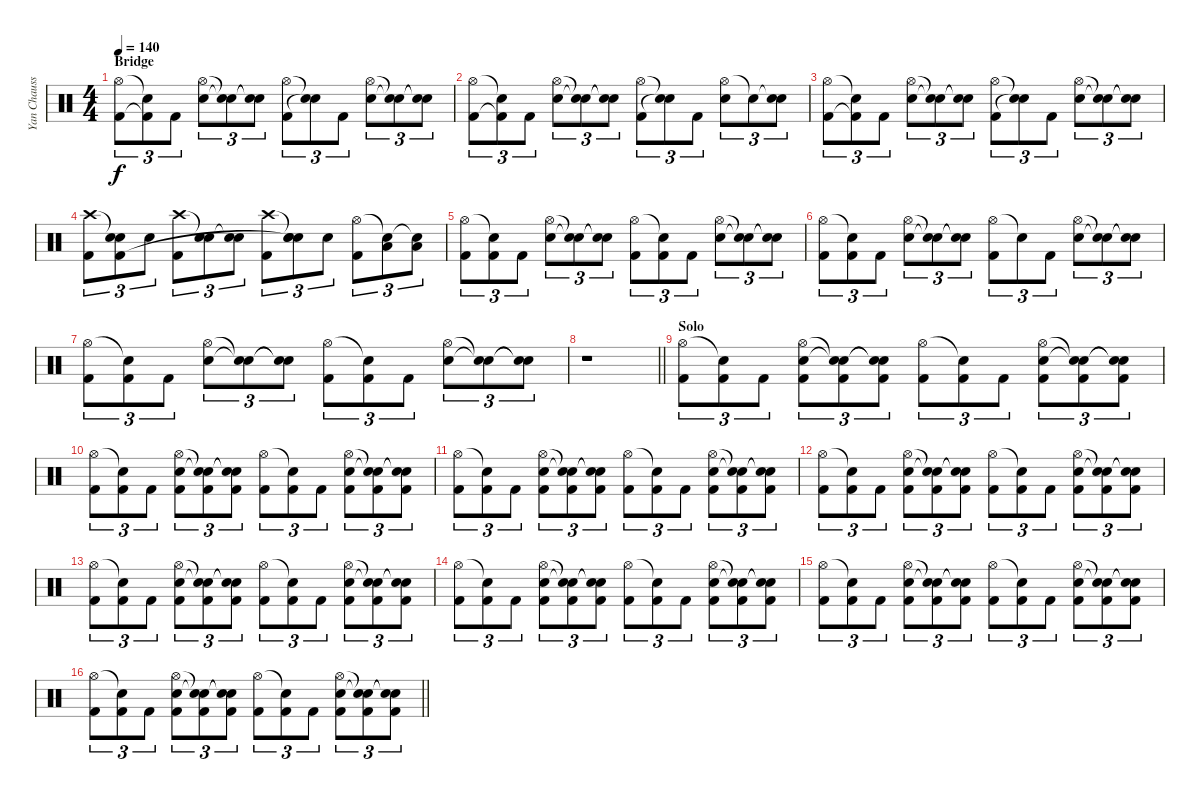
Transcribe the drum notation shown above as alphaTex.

\track ("Yan Chausse" "Yan Chauss") {instrument percussion}
\staff {score}
\articulation defaults
\ts (4 4)
\section ("" "Bridge")
\tempo 140
\clef neutral
\ks c
("Hi-Hat (open)" "Kick (hit) 2").8{tu (3 2) dy f} ("Snare (hit)"{t} "Kick (hit) 2"{t}).8{tu (3 2)} "Kick (hit) 2".8{tu (3 2)} ("Hi-Hat (open)" "Snare (hit) 2").8{tu (3 2)} ("Snare (hit)"{t} "Snare (hit)"{t}).8{tu (3 2)} ("Snare (hit)"{t} "Snare (hit)"{t}).8{tu (3 2)} ("Hi-Hat (open)" "Kick (hit) 2").8{tu (3 2)} ("Snare (hit)"{t} "Snare (hit)"{t}).8{tu (3 2)} "Kick (hit) 2".8{tu (3 2)} ("Hi-Hat (open)" "Snare (hit) 2").8{tu (3 2)} ("Snare (hit)"{t} "Snare (hit)"{t}).8{tu (3 2)} ("Snare (hit)"{t} "Snare (hit)"{t}).8{tu (3 2)} |
("Hi-Hat (open)" "Kick (hit) 2").8{tu (3 2)} ("Snare (hit)"{t} "Kick (hit) 2"{t}).8{tu (3 2)} "Kick (hit) 2".8{tu (3 2)} ("Hi-Hat (open)" "Snare (hit) 2").8{tu (3 2)} ("Snare (hit)"{t} "Snare (hit)"{t}).8{tu (3 2)} ("Snare (hit)"{t} "Snare (hit)"{t}).8{tu (3 2)} ("Hi-Hat (open)" "Kick (hit) 2").8{tu (3 2)} ("Snare (hit)"{t} "Snare (hit)"{t}).8{tu (3 2)} "Kick (hit) 2".8{tu (3 2)} ("Hi-Hat (open)" "Snare (hit) 2").8{tu (3 2)} "Snare (hit)"{t}.8{tu (3 2)} ("Snare (hit)"{t} "Snare (hit) 2").8{tu (3 2)} |
("Hi-Hat (open)" "Kick (hit) 2").8{tu (3 2)} ("Snare (hit)"{t} "Kick (hit) 2"{t}).8{tu (3 2)} "Kick (hit) 2".8{tu (3 2)} ("Hi-Hat (open)" "Snare (hit) 2").8{tu (3 2)} ("Snare (hit)"{t} "Snare (hit)"{t}).8{tu (3 2)} ("Snare (hit)"{t} "Snare (hit)"{t}).8{tu (3 2)} ("Hi-Hat (open)" "Kick (hit) 2").8{tu (3 2)} ("Snare (hit)"{t} "Snare (hit)"{t}).8{tu (3 2)} "Kick (hit) 2".8{tu (3 2)} ("Hi-Hat (open)" "Snare (hit) 2").8{tu (3 2)} ("Snare (hit)"{t} "Snare (hit)"{t}).8{tu (3 2)} ("Snare (hit)"{t} "Snare (hit)"{t}).8{tu (3 2)} |
("Crash high (hit)" "Kick (hit) 2").8{tu (3 2)} ("Snare (hit)"{t} "Snare (hit) 2" "Kick (hit) 2").8{tu (3 2)} "Snare (hit) 2".8{tu (3 2)} ("Crash high (hit)" "Kick (hit) 2").8{tu (3 2)} ("Snare (hit)"{t} "Snare (hit) 2").8{tu (3 2)} ("Snare (hit)"{t} "Snare (hit) 2").8{tu (3 2)} ("Crash high (hit)" "Kick (hit) 2").8{tu (3 2)} ("Snare (hit)"{t} "Snare (hit) 2" "Snare (hit)"{t}).8{tu (3 2)} "Snare (hit) 2".8{tu (3 2)} ("Hi-Hat (open)" "Kick (hit) 2").8{tu (3 2)} ("Snare (hit)"{t} "Low Tom (hit)").8{tu (3 2)} ("Snare (hit)"{t} "Low Tom (hit)").8{tu (3 2)} |
("Hi-Hat (open)" "Kick (hit) 2").8{tu (3 2)} ("Snare (hit)"{t} "Kick (hit) 2").8{tu (3 2)} "Kick (hit) 2".8{tu (3 2)} ("Hi-Hat (open)" "Snare (hit) 2").8{tu (3 2)} ("Snare (hit)"{t} "Snare (hit)"{t}).8{tu (3 2)} ("Snare (hit)"{t} "Snare (hit)"{t}).8{tu (3 2)} ("Hi-Hat (open)" "Kick (hit) 2").8{tu (3 2)} ("Snare (hit)"{t} "Kick (hit) 2").8{tu (3 2)} "Kick (hit) 2".8{tu (3 2)} ("Hi-Hat (open)" "Snare (hit) 2").8{tu (3 2)} ("Snare (hit)"{t} "Snare (hit)"{t}).8{tu (3 2)} ("Snare (hit)"{t} "Snare (hit)"{t}).8{tu (3 2)} |
("Hi-Hat (open)" "Kick (hit) 2").8{tu (3 2)} ("Snare (hit)"{t} "Kick (hit) 2").8{tu (3 2)} "Kick (hit) 2".8{tu (3 2)} ("Hi-Hat (open)" "Snare (hit) 2").8{tu (3 2)} ("Snare (hit)"{t} "Snare (hit)"{t}).8{tu (3 2)} ("Snare (hit)"{t} "Snare (hit)"{t}).8{tu (3 2)} ("Hi-Hat (open)" "Kick (hit) 2").8{tu (3 2)} "Snare (hit)"{t}.8{tu (3 2)} "Kick (hit) 2".8{tu (3 2)} ("Hi-Hat (open)" "Snare (hit) 2").8{tu (3 2)} ("Snare (hit)"{t} "Snare (hit)"{t}).8{tu (3 2)} ("Snare (hit)"{t} "Snare (hit)"{t}).8{tu (3 2)} |
("Hi-Hat (open)" "Kick (hit) 2").8{tu (3 2)} ("Snare (hit)"{t} "Kick (hit) 2").8{tu (3 2)} "Kick (hit) 2".8{tu (3 2)} ("Hi-Hat (open)" "Snare (hit) 2").8{tu (3 2)} ("Snare (hit)"{t} "Snare (hit)"{t}).8{tu (3 2)} ("Snare (hit)"{t} "Snare (hit)"{t}).8{tu (3 2)} ("Hi-Hat (open)" "Kick (hit) 2").8{tu (3 2)} ("Snare (hit)"{t} "Kick (hit) 2").8{tu (3 2)} "Kick (hit) 2".8{tu (3 2)} ("Hi-Hat (open)" "Snare (hit) 2").8{tu (3 2)} ("Snare (hit)"{t} "Snare (hit)"{t}).8{tu (3 2)} ("Snare (hit)"{t} "Snare (hit)"{t}).8{tu (3 2)} |
\barLineRight lightlight
r.1 |
\section ("" "Solo")
("Hi-Hat (open)" "Kick (hit) 2").8{tu (3 2)} ("Snare (hit)"{t} "Kick (hit) 2").8{tu (3 2)} "Kick (hit) 2".8{tu (3 2)} ("Hi-Hat (open)" "Snare (hit) 2" "Kick (hit) 2").8{tu (3 2)} ("Snare (hit)"{t} "Snare (hit)"{t} "Kick (hit) 2").8{tu (3 2)} ("Snare (hit)"{t} "Snare (hit)"{t} "Kick (hit) 2").8{tu (3 2)} ("Hi-Hat (open)" "Kick (hit) 2").8{tu (3 2)} ("Snare (hit)"{t} "Kick (hit) 2").8{tu (3 2)} "Kick (hit) 2".8{tu (3 2)} ("Hi-Hat (open)" "Snare (hit) 2" "Kick (hit) 2").8{tu (3 2)} ("Snare (hit)"{t} "Snare (hit)"{t} "Kick (hit) 2").8{tu (3 2)} ("Snare (hit)"{t} "Snare (hit)"{t} "Kick (hit) 2").8{tu (3 2)} |
("Hi-Hat (open)" "Kick (hit) 2").8{tu (3 2)} ("Snare (hit)"{t} "Kick (hit) 2").8{tu (3 2)} "Kick (hit) 2".8{tu (3 2)} ("Hi-Hat (open)" "Snare (hit) 2" "Kick (hit) 2").8{tu (3 2)} ("Snare (hit)"{t} "Snare (hit)"{t} "Kick (hit) 2").8{tu (3 2)} ("Snare (hit)"{t} "Snare (hit)"{t} "Kick (hit) 2").8{tu (3 2)} ("Hi-Hat (open)" "Kick (hit) 2").8{tu (3 2)} ("Snare (hit)"{t} "Kick (hit) 2").8{tu (3 2)} "Kick (hit) 2".8{tu (3 2)} ("Hi-Hat (open)" "Snare (hit) 2" "Kick (hit) 2").8{tu (3 2)} ("Snare (hit)"{t} "Snare (hit)"{t} "Kick (hit) 2").8{tu (3 2)} ("Snare (hit)"{t} "Snare (hit)"{t} "Kick (hit) 2").8{tu (3 2)} |
("Hi-Hat (open)" "Kick (hit) 2").8{tu (3 2)} ("Snare (hit)"{t} "Kick (hit) 2").8{tu (3 2)} "Kick (hit) 2".8{tu (3 2)} ("Hi-Hat (open)" "Snare (hit) 2" "Kick (hit) 2").8{tu (3 2)} ("Snare (hit)"{t} "Snare (hit)"{t} "Kick (hit) 2").8{tu (3 2)} ("Snare (hit)"{t} "Snare (hit)"{t} "Kick (hit) 2").8{tu (3 2)} ("Hi-Hat (open)" "Kick (hit) 2").8{tu (3 2)} ("Snare (hit)"{t} "Kick (hit) 2").8{tu (3 2)} "Kick (hit) 2".8{tu (3 2)} ("Hi-Hat (open)" "Snare (hit) 2" "Kick (hit) 2").8{tu (3 2)} ("Snare (hit)"{t} "Snare (hit)"{t} "Kick (hit) 2").8{tu (3 2)} ("Snare (hit)"{t} "Snare (hit)"{t} "Kick (hit) 2").8{tu (3 2)} |
("Hi-Hat (open)" "Kick (hit) 2").8{tu (3 2)} ("Snare (hit)"{t} "Kick (hit) 2").8{tu (3 2)} "Kick (hit) 2".8{tu (3 2)} ("Hi-Hat (open)" "Snare (hit) 2" "Kick (hit) 2").8{tu (3 2)} ("Snare (hit)"{t} "Snare (hit)"{t} "Kick (hit) 2").8{tu (3 2)} ("Snare (hit)"{t} "Snare (hit)"{t} "Kick (hit) 2").8{tu (3 2)} ("Hi-Hat (open)" "Kick (hit) 2").8{tu (3 2)} ("Snare (hit)"{t} "Kick (hit) 2").8{tu (3 2)} "Kick (hit) 2".8{tu (3 2)} ("Hi-Hat (open)" "Snare (hit) 2" "Kick (hit) 2").8{tu (3 2)} ("Snare (hit)"{t} "Snare (hit)"{t} "Kick (hit) 2").8{tu (3 2)} ("Snare (hit)"{t} "Snare (hit)"{t} "Kick (hit) 2").8{tu (3 2)} |
("Hi-Hat (open)" "Kick (hit) 2").8{tu (3 2)} ("Snare (hit)"{t} "Kick (hit) 2").8{tu (3 2)} "Kick (hit) 2".8{tu (3 2)} ("Hi-Hat (open)" "Snare (hit) 2" "Kick (hit) 2").8{tu (3 2)} ("Snare (hit)"{t} "Snare (hit)"{t} "Kick (hit) 2").8{tu (3 2)} ("Snare (hit)"{t} "Snare (hit)"{t} "Kick (hit) 2").8{tu (3 2)} ("Hi-Hat (open)" "Kick (hit) 2").8{tu (3 2)} ("Snare (hit)"{t} "Kick (hit) 2").8{tu (3 2)} "Kick (hit) 2".8{tu (3 2)} ("Hi-Hat (open)" "Snare (hit) 2" "Kick (hit) 2").8{tu (3 2)} ("Snare (hit)"{t} "Snare (hit)"{t} "Kick (hit) 2").8{tu (3 2)} ("Snare (hit)"{t} "Snare (hit)"{t} "Kick (hit) 2").8{tu (3 2)} |
("Hi-Hat (open)" "Kick (hit) 2").8{tu (3 2)} ("Snare (hit)"{t} "Kick (hit) 2").8{tu (3 2)} "Kick (hit) 2".8{tu (3 2)} ("Hi-Hat (open)" "Snare (hit) 2" "Kick (hit) 2").8{tu (3 2)} ("Snare (hit)"{t} "Snare (hit)"{t} "Kick (hit) 2").8{tu (3 2)} ("Snare (hit)"{t} "Snare (hit)"{t} "Kick (hit) 2").8{tu (3 2)} ("Hi-Hat (open)" "Kick (hit) 2").8{tu (3 2)} ("Snare (hit)"{t} "Kick (hit) 2").8{tu (3 2)} "Kick (hit) 2".8{tu (3 2)} ("Hi-Hat (open)" "Snare (hit) 2" "Kick (hit) 2").8{tu (3 2)} ("Snare (hit)"{t} "Snare (hit)"{t} "Kick (hit) 2").8{tu (3 2)} ("Snare (hit)"{t} "Snare (hit)"{t} "Kick (hit) 2").8{tu (3 2)} |
("Hi-Hat (open)" "Kick (hit) 2").8{tu (3 2)} ("Snare (hit)"{t} "Kick (hit) 2").8{tu (3 2)} "Kick (hit) 2".8{tu (3 2)} ("Hi-Hat (open)" "Snare (hit) 2" "Kick (hit) 2").8{tu (3 2)} ("Snare (hit)"{t} "Snare (hit)"{t} "Kick (hit) 2").8{tu (3 2)} ("Snare (hit)"{t} "Snare (hit)"{t} "Kick (hit) 2").8{tu (3 2)} ("Hi-Hat (open)" "Kick (hit) 2").8{tu (3 2)} ("Snare (hit)"{t} "Kick (hit) 2").8{tu (3 2)} "Kick (hit) 2".8{tu (3 2)} ("Hi-Hat (open)" "Snare (hit) 2" "Kick (hit) 2").8{tu (3 2)} ("Snare (hit)"{t} "Snare (hit)"{t} "Kick (hit) 2").8{tu (3 2)} ("Snare (hit)"{t} "Snare (hit)"{t} "Kick (hit) 2").8{tu (3 2)} |
\barLineRight lightlight
("Hi-Hat (open)" "Kick (hit) 2").8{tu (3 2)} ("Snare (hit)"{t} "Kick (hit) 2").8{tu (3 2)} "Kick (hit) 2".8{tu (3 2)} ("Hi-Hat (open)" "Snare (hit) 2" "Kick (hit) 2").8{tu (3 2)} ("Snare (hit)"{t} "Snare (hit)"{t} "Kick (hit) 2").8{tu (3 2)} ("Snare (hit)"{t} "Snare (hit)"{t} "Kick (hit) 2").8{tu (3 2)} ("Hi-Hat (open)" "Kick (hit) 2").8{tu (3 2)} ("Snare (hit)"{t} "Kick (hit) 2").8{tu (3 2)} "Kick (hit) 2".8{tu (3 2)} ("Hi-Hat (open)" "Snare (hit) 2" "Kick (hit) 2").8{tu (3 2)} ("Snare (hit)"{t} "Snare (hit)"{t} "Kick (hit) 2").8{tu (3 2)} ("Snare (hit)"{t} "Snare (hit)"{t} "Kick (hit) 2").8{tu (3 2)}
